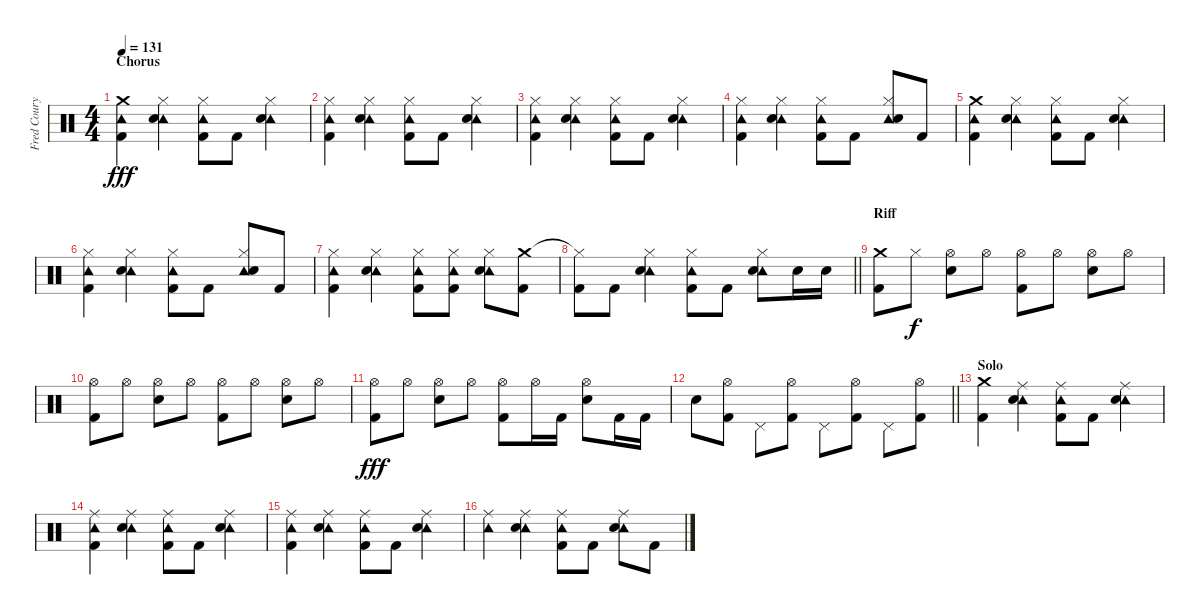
\track ("Fred Coury - Drums" "Fred Coury") {instrument percussion}
\staff {score}
\articulation defaults
\ts (4 4)
\section ("" "Chorus")
\tempo 131
\clef neutral
\ks c
("Crash medium (hit)" "Tambourine (hit)" "Kick (hit) 2").4{dy fff} ("Hi-Hat (closed)" "Tambourine (hit)" "Snare (hit) 2").4 ("Hi-Hat (closed)" "Tambourine (hit)" "Kick (hit) 2").8 "Kick (hit) 2".8 ("Hi-Hat (closed)" "Tambourine (hit)" "Snare (hit) 2").4 |
("Hi-Hat (closed)" "Tambourine (hit)" "Kick (hit) 2").4 ("Hi-Hat (closed)" "Tambourine (hit)" "Snare (hit) 2").4 ("Hi-Hat (closed)" "Tambourine (hit)" "Kick (hit) 2").8 "Kick (hit) 2".8 ("Hi-Hat (closed)" "Tambourine (hit)" "Snare (hit) 2").4 |
("Hi-Hat (closed)" "Tambourine (hit)" "Kick (hit) 2").4 ("Hi-Hat (closed)" "Tambourine (hit)" "Snare (hit) 2").4 ("Hi-Hat (closed)" "Tambourine (hit)" "Kick (hit) 2").8 "Kick (hit) 2".8 ("Hi-Hat (closed)" "Tambourine (hit)" "Snare (hit) 2").4 |
("Hi-Hat (closed)" "Tambourine (hit)" "Kick (hit) 2").4 ("Hi-Hat (closed)" "Tambourine (hit)" "Snare (hit) 2").4 ("Hi-Hat (closed)" "Tambourine (hit)" "Kick (hit) 2").8 "Kick (hit) 2".8 ("Hi-Hat (closed)" "Tambourine (hit)" "Snare (hit) 2").8 "Kick (hit) 2".8 |
("Crash medium (hit)" "Tambourine (hit)" "Kick (hit) 2").4 ("Hi-Hat (closed)" "Tambourine (hit)" "Snare (hit) 2").4 ("Hi-Hat (closed)" "Tambourine (hit)" "Kick (hit) 2").8 "Kick (hit) 2".8 ("Hi-Hat (closed)" "Tambourine (hit)" "Snare (hit) 2").4 |
("Hi-Hat (closed)" "Tambourine (hit)" "Kick (hit) 2").4 ("Hi-Hat (closed)" "Tambourine (hit)" "Snare (hit) 2").4 ("Hi-Hat (closed)" "Tambourine (hit)" "Kick (hit) 2").8 "Kick (hit) 2".8 ("Hi-Hat (closed)" "Tambourine (hit)" "Snare (hit) 2").8 "Kick (hit) 2".8 |
("Hi-Hat (closed)" "Tambourine (hit)" "Kick (hit) 2").4 ("Hi-Hat (closed)" "Tambourine (hit)" "Snare (hit) 2").4 ("Hi-Hat (closed)" "Tambourine (hit)" "Kick (hit) 2").8 ("Hi-Hat (closed)" "Tambourine (hit)" "Kick (hit) 2").8 ("Hi-Hat (closed)" "Tambourine (hit)" "Snare (hit) 2").8 ("Crash medium (hit)" "Kick (hit) 2").8 |
\barLineRight lightlight
("Hi-Hat (closed)"{t} "Kick (hit) 2").8 "Kick (hit) 2".8 ("Hi-Hat (closed)" "Tambourine (hit)" "Snare (hit) 2").4 ("Hi-Hat (closed)" "Tambourine (hit)" "Kick (hit) 2").8 "Kick (hit) 2".8 ("Hi-Hat (closed)" "Tambourine (hit)" "Snare (hit) 2").8 "Snare (hit) 2".16 "Snare (hit) 2".16 |
\section ("" "Riff")
("Crash medium (hit)" "Kick (hit) 2").8 "Hi-Hat (closed)".8{dy f} ("Hi-Hat (open)" "Snare (hit) 2").8 "Hi-Hat (open)".8 ("Hi-Hat (open)" "Kick (hit) 2").8 "Hi-Hat (open)".8 ("Hi-Hat (open)" "Snare (hit) 2").8 "Hi-Hat (open)".8 |
("Hi-Hat (open)" "Kick (hit) 2").8 "Hi-Hat (open)".8 ("Hi-Hat (open)" "Snare (hit) 2").8 "Hi-Hat (open)".8 ("Hi-Hat (open)" "Kick (hit) 2").8 "Hi-Hat (open)".8 ("Hi-Hat (open)" "Snare (hit) 2").8 "Hi-Hat (open)".8 |
("Hi-Hat (open)" "Kick (hit) 2").8{dy fff} "Hi-Hat (open)".8 ("Hi-Hat (open)" "Snare (hit) 2").8 "Hi-Hat (open)".8 ("Hi-Hat (open)" "Kick (hit) 2").8 "Hi-Hat (open)".16 "Kick (hit) 2".16 ("Hi-Hat (open)" "Snare (hit) 2").8 "Kick (hit) 2".16 "Kick (hit) 2".16 |
\barLineRight lightlight "Snare (hit) 2".8
("Hi-Hat (open)" "Kick (hit) 2").8 "Pedal Hi-Hat (hit)".8 ("Hi-Hat (open)" "Kick (hit) 2").8 "Pedal Hi-Hat (hit)".8 ("Hi-Hat (open)" "Kick (hit) 2").8 "Pedal Hi-Hat (hit)".8 ("Hi-Hat (open)" "Kick (hit) 2").8 |
\section ("" "Solo")
("Crash medium (hit)" "Kick (hit) 2").4 ("Ride (middle)" "Tambourine (hit)" "Snare (hit) 2").4 ("Ride (middle)" "Tambourine (hit)" "Kick (hit) 2").8 "Kick (hit) 2".8 ("Ride (middle)" "Tambourine (hit)" "Snare (hit) 2").4 |
("Ride (middle)" "Tambourine (hit)" "Kick (hit) 2").4 ("Ride (middle)" "Tambourine (hit)" "Snare (hit) 2").4 ("Ride (middle)" "Tambourine (hit)" "Kick (hit) 2").8 "Kick (hit) 2".8 ("Ride (middle)" "Tambourine (hit)" "Snare (hit) 2").4 |
("Ride (middle)" "Tambourine (hit)" "Kick (hit) 2").4 ("Ride (middle)" "Tambourine (hit)" "Snare (hit) 2").4 ("Ride (middle)" "Tambourine (hit)" "Kick (hit) 2").8 "Kick (hit) 2".8 ("Ride (middle)" "Tambourine (hit)" "Snare (hit) 2").4 |
("Ride (middle)" "Tambourine (hit)").4 ("Ride (middle)" "Tambourine (hit)" "Snare (hit) 2").4 ("Ride (middle)" "Tambourine (hit)" "Kick (hit) 2").8 "Kick (hit) 2".8 ("Ride (middle)" "Tambourine (hit)" "Snare (hit) 2").8 "Kick (hit) 2".8
